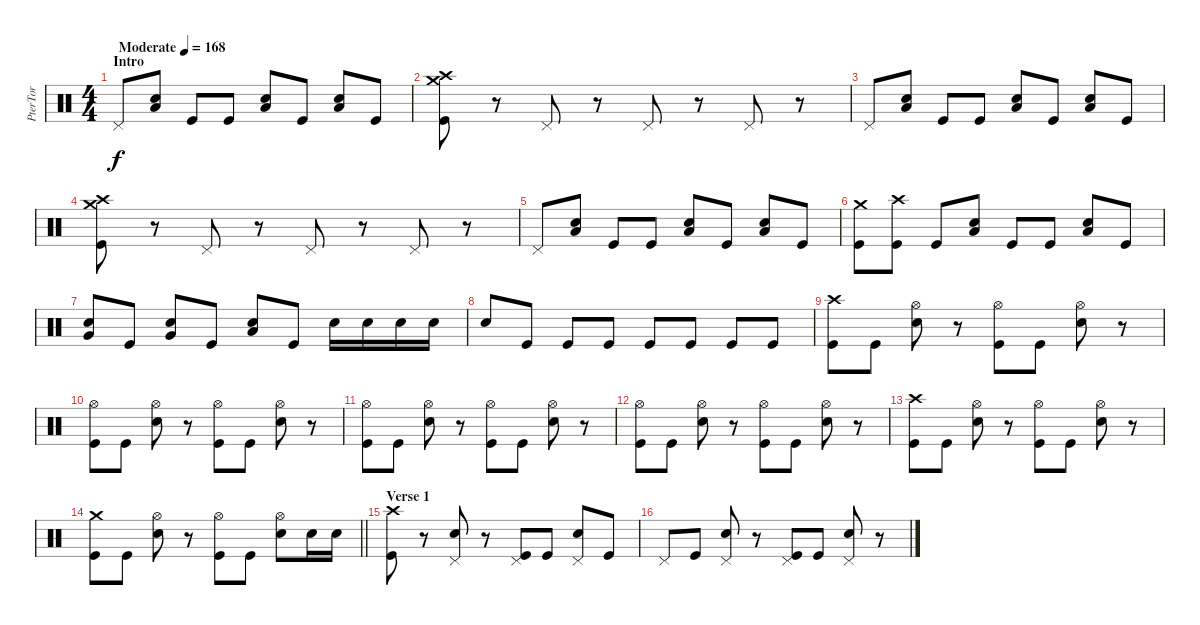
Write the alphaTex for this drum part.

\track ("PterTor" "PterTor") {instrument percussion}
\staff {score}
\articulation defaults
\ts (4 4)
\section ("" "Intro")
\tempo (168 "Moderate")
\clef neutral
\ks c "Pedal Hi-Hat (hit)".8{dy f}
("Low Floor Tom (hit)" "Electric Snare (hit)").8 "Kick (hit)".8 "Kick (hit)".8 ("Low Floor Tom (hit)" "Electric Snare (hit)").8 "Kick (hit)".8 ("Low Floor Tom (hit)" "Electric Snare (hit)").8 "Kick (hit)".8 |
("Crash high (hit)" "Crash medium (hit)" "Kick (hit)").8 r.8 "Pedal Hi-Hat (hit)".8 r.8 "Pedal Hi-Hat (hit)".8 r.8 "Pedal Hi-Hat (hit)".8 r.8 |
"Pedal Hi-Hat (hit)".8 ("Low Floor Tom (hit)" "Electric Snare (hit)").8 "Kick (hit)".8 "Kick (hit)".8 ("Low Floor Tom (hit)" "Electric Snare (hit)").8 "Kick (hit)".8 ("Low Floor Tom (hit)" "Electric Snare (hit)").8 "Kick (hit)".8 |
("Crash high (hit)" "Crash medium (hit)" "Kick (hit)").8 r.8 "Pedal Hi-Hat (hit)".8 r.8 "Pedal Hi-Hat (hit)".8 r.8 "Pedal Hi-Hat (hit)".8 r.8 |
"Pedal Hi-Hat (hit)".8 ("Low Floor Tom (hit)" "Electric Snare (hit)").8 "Kick (hit)".8 "Kick (hit)".8 ("Low Floor Tom (hit)" "Electric Snare (hit)").8 "Kick (hit)".8 ("Low Floor Tom (hit)" "Electric Snare (hit)").8 "Kick (hit)".8 |
("Crash medium (hit)" "Kick (hit)").8 ("Crash high (hit)" "Kick (hit)").8 "Kick (hit)".8 ("Low Tom (hit)" "Electric Snare (hit)").8 "Kick (hit)".8 "Kick (hit)".8 ("Low Tom (hit)" "Electric Snare (hit)").8 "Kick (hit)".8 |
("Very Low Tom (hit)" "Electric Snare (hit)").8 "Kick (hit)".8 ("Very Low Tom (hit)" "Electric Snare (hit)").8 "Kick (hit)".8 ("Low Floor Tom (hit)" "Electric Snare (hit)").8 "Kick (hit)".8 "Electric Snare (hit)".16 "Electric Snare (hit)".16 "Electric Snare (hit)".16 "Electric Snare (hit)".16 |
"Electric Snare (hit)".8 "Kick (hit)".8 "Kick (hit)".8 "Kick (hit)".8 "Kick (hit)".8 "Kick (hit)".8 "Kick (hit)".8 "Kick (hit)".8 |
("Crash high (hit)" "Kick (hit)").8 "Kick (hit)".8 ("Hi-Hat (open)" "Electric Snare (hit)").8 r.8 ("Hi-Hat (open)" "Kick (hit)").8 "Kick (hit)".8 ("Hi-Hat (open)" "Electric Snare (hit)").8 r.8 |
("Hi-Hat (open)" "Kick (hit)").8 "Kick (hit)".8 ("Hi-Hat (open)" "Electric Snare (hit)").8 r.8 ("Hi-Hat (open)" "Kick (hit)").8 "Kick (hit)".8 ("Hi-Hat (open)" "Electric Snare (hit)").8 r.8 |
("Hi-Hat (open)" "Kick (hit)").8 "Kick (hit)".8 ("Hi-Hat (open)" "Electric Snare (hit)").8 r.8 ("Hi-Hat (open)" "Kick (hit)").8 "Kick (hit)".8 ("Hi-Hat (open)" "Electric Snare (hit)").8 r.8 |
("Hi-Hat (open)" "Kick (hit)").8 "Kick (hit)".8 ("Hi-Hat (open)" "Electric Snare (hit)").8 r.8 ("Hi-Hat (open)" "Kick (hit)").8 "Kick (hit)".8 ("Hi-Hat (open)" "Electric Snare (hit)").8 r.8 |
("Crash high (hit)" "Kick (hit)").8 "Kick (hit)".8 ("Hi-Hat (open)" "Electric Snare (hit)").8 r.8 ("Hi-Hat (open)" "Kick (hit)").8 "Kick (hit)".8 ("Hi-Hat (open)" "Electric Snare (hit)").8 r.8 |
\barLineRight lightlight
("Crash medium (hit)" "Kick (hit)").8 "Kick (hit)".8 ("Hi-Hat (open)" "Electric Snare (hit)").8 r.8 ("Hi-Hat (open)" "Kick (hit)").8 "Kick (hit)".8 ("Hi-Hat (open)" "Electric Snare (hit)").8 "Electric Snare (hit)".16 "Electric Snare (hit)".16 |
\section ("" "Verse 1")
("Crash high (hit)" "Kick (hit)").8 r.8 ("Pedal Hi-Hat (hit)" "Electric Snare (hit)").8 r.8 ("Pedal Hi-Hat (hit)" "Kick (hit)").8 "Kick (hit)".8 ("Pedal Hi-Hat (hit)" "Electric Snare (hit)").8 "Kick (hit)".8 |
"Pedal Hi-Hat (hit)".8 "Kick (hit)".8 ("Pedal Hi-Hat (hit)" "Electric Snare (hit)").8 r.8 ("Pedal Hi-Hat (hit)" "Kick (hit)").8 "Kick (hit)".8 ("Pedal Hi-Hat (hit)" "Electric Snare (hit)").8 r.8
